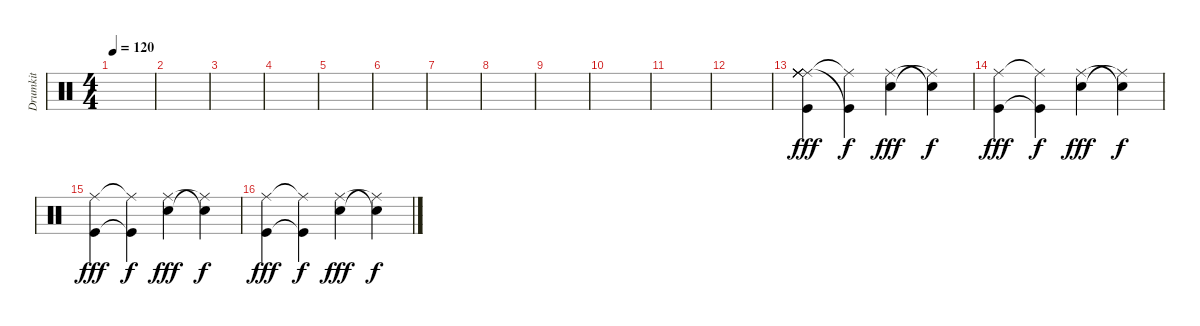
\track ("Drumkit" "Drumkit") {instrument percussion}
\staff {score}
\articulation defaults
\ts (4 4)
\tempo 120
\clef neutral
\ks c
|
|
|
|
|
|
|
|
|
|
|
|
("Ride (middle)" "Ride (middle)" "Ride (middle)" "Ride (middle)" "Ride (middle)" "Kick (hit)").4{dy fff} ("Ride (middle)"{t} "Kick (hit)"{t}).4{dy f} ("Ride (middle)" "Snare (hit) 2").4{dy fff} ("Snare (hit)"{t} "Ride (middle)"{t}).4{dy f} |
("Ride (middle)" "Kick (hit)").4{dy fff} ("Ride (middle)"{t} "Kick (hit)"{t}).4{dy f} ("Ride (middle)" "Snare (hit) 2").4{dy fff} ("Snare (hit)"{t} "Ride (middle)"{t}).4{dy f} |
("Ride (middle)" "Kick (hit)").4{dy fff} ("Ride (middle)"{t} "Kick (hit)"{t}).4{dy f} ("Ride (middle)" "Snare (hit) 2").4{dy fff} ("Snare (hit)"{t} "Ride (middle)"{t}).4{dy f} |
("Ride (middle)" "Kick (hit)").4{dy fff} ("Ride (middle)"{t} "Kick (hit)"{t}).4{dy f} ("Ride (middle)" "Snare (hit) 2").4{dy fff} ("Snare (hit)"{t} "Ride (middle)"{t}).4{dy f}
